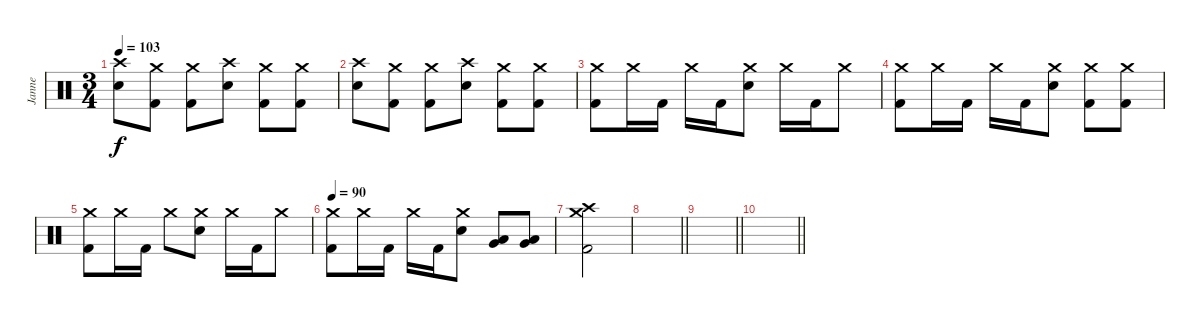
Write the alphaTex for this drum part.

\track ("Janne" "Janne") {instrument percussion}
\staff {score}
\articulation defaults
\ts (3 4)
\tempo 103
\clef neutral
\ks c
("Crash high (hit)" "Electric Snare (hit)").8{dy f} ("Crash medium (hit)" "Kick (hit) 2").8 ("Crash medium (hit)" "Kick (hit) 2").8 ("Crash high (hit)" "Electric Snare (hit)").8 ("Crash medium (hit)" "Kick (hit) 2").8 ("Crash medium (hit)" "Kick (hit) 2").8 |
("Crash high (hit)" "Electric Snare (hit)").8 ("Crash medium (hit)" "Kick (hit) 2").8 ("Crash medium (hit)" "Kick (hit) 2").8 ("Crash high (hit)" "Electric Snare (hit)").8 ("Crash medium (hit)" "Kick (hit) 2").8 ("Crash medium (hit)" "Kick (hit) 2").8 |
("Crash medium (hit)" "Kick (hit) 2").8 "Crash medium (hit)".16 "Kick (hit) 2".16 "Crash medium (hit)".16 "Kick (hit) 2".16 ("Crash medium (hit)" "Electric Snare (hit)").8 "Crash medium (hit)".16 "Kick (hit) 2".16 "Crash medium (hit)".8 |
("Crash medium (hit)" "Kick (hit) 2").8 "Crash medium (hit)".16 "Kick (hit) 2".16 "Crash medium (hit)".16 "Kick (hit) 2".16 ("Crash medium (hit)" "Electric Snare (hit)").8 ("Crash medium (hit)" "Kick (hit) 2").8 ("Crash medium (hit)" "Kick (hit) 2").8 |
("Crash medium (hit)" "Kick (hit) 2").8 "Crash medium (hit)".16 "Kick (hit) 2".16 "Crash medium (hit)".8 ("Crash medium (hit)" "Electric Snare (hit)").8 "Crash medium (hit)".16 "Kick (hit) 2".16 "Crash medium (hit)".8 |
\tempo 90
("Crash medium (hit)" "Kick (hit) 2").8 "Crash medium (hit)".16 "Kick (hit) 2".16 "Crash medium (hit)".16 "Kick (hit) 2".16 ("Crash medium (hit)" "Electric Snare (hit)").8 ("Low Tom (hit)" "Very Low Tom (hit)").8 ("Low Tom (hit)" "Very Low Tom (hit)").8 |
("Crash high (hit)" "Crash medium (hit)" "Kick (hit) 2").2 |
\barLineRight lightlight
|
\barLineRight lightlight
|
\barLineRight lightlight
